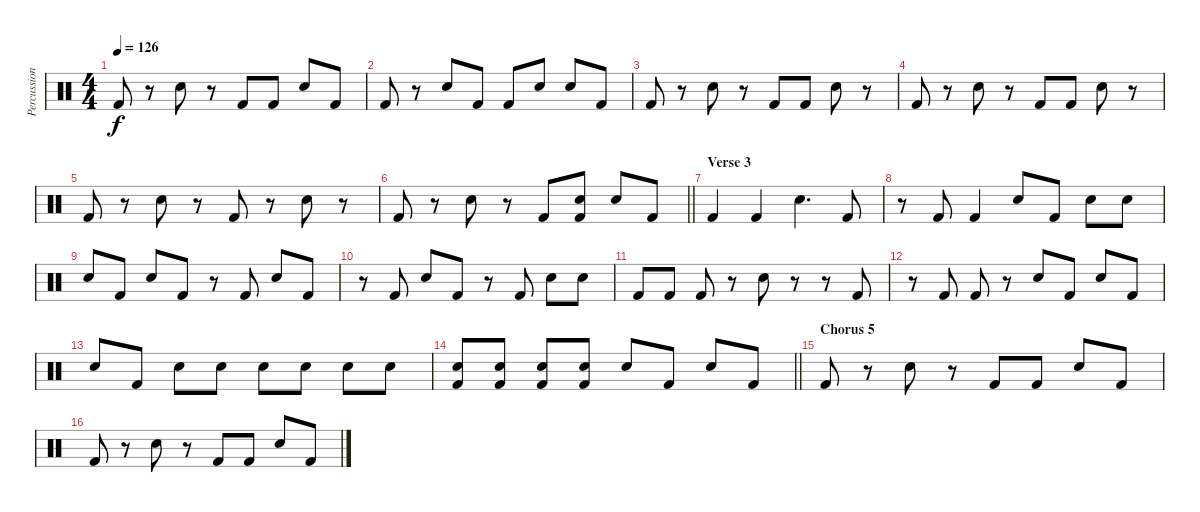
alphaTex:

\track ("Percussion" "Percussion") {instrument percussion}
\staff {score}
\articulation defaults
\ts (4 4)
\tempo 126
\clef neutral
\ks c "Kick (hit) 2".8{dy f}
r.8 "Snare (hit) 2".8 r.8 "Kick (hit) 2".8 "Kick (hit) 2".8 "Snare (hit) 2".8 "Kick (hit) 2".8 |
"Kick (hit) 2".8 r.8 "Snare (hit) 2".8 "Kick (hit) 2".8 "Kick (hit) 2".8 "Snare (hit) 2".8 "Snare (hit) 2".8 "Kick (hit) 2".8 |
"Kick (hit) 2".8 r.8 "Snare (hit) 2".8 r.8 "Kick (hit) 2".8 "Kick (hit) 2".8 "Snare (hit) 2".8 r.8 |
"Kick (hit) 2".8 r.8 "Snare (hit) 2".8 r.8 "Kick (hit) 2".8 "Kick (hit) 2".8 "Snare (hit) 2".8 r.8 |
"Kick (hit) 2".8 r.8 "Snare (hit) 2".8 r.8 "Kick (hit) 2".8 r.8 "Snare (hit) 2".8 r.8 |
\barLineRight lightlight "Kick (hit) 2".8
r.8 "Snare (hit) 2".8 r.8 "Kick (hit) 2".8 ("Snare (hit) 2" "Kick (hit) 2").8 "Snare (hit) 2".8 "Kick (hit) 2".8 |
\section ("" "Verse 3")
"Kick (hit) 2".4 "Kick (hit) 2".4 "Snare (hit) 2".4{d} "Kick (hit) 2".8 |
r.8 "Kick (hit) 2".8 "Kick (hit) 2".4 "Snare (hit) 2".8 "Kick (hit) 2".8 "Snare (hit) 2".8 "Snare (hit) 2".8 |
"Snare (hit) 2".8 "Kick (hit) 2".8 "Snare (hit) 2".8 "Kick (hit) 2".8 r.8 "Kick (hit) 2".8 "Snare (hit) 2".8 "Kick (hit) 2".8 |
r.8 "Kick (hit) 2".8 "Snare (hit) 2".8 "Kick (hit) 2".8 r.8 "Kick (hit) 2".8 "Snare (hit) 2".8 "Snare (hit) 2".8 |
"Kick (hit) 2".8 "Kick (hit) 2".8 "Kick (hit) 2".8 r.8 "Snare (hit) 2".8 r.8 r.8 "Kick (hit) 2".8 |
r.8 "Kick (hit) 2".8 "Kick (hit) 2".8 r.8 "Snare (hit) 2".8 "Kick (hit) 2".8 "Snare (hit) 2".8 "Kick (hit) 2".8 |
"Snare (hit) 2".8 "Kick (hit) 2".8 "Snare (hit) 2".8 "Snare (hit) 2".8 "Snare (hit) 2".8 "Snare (hit) 2".8 "Snare (hit) 2".8 "Snare (hit) 2".8 |
\barLineRight lightlight
("Snare (hit) 2" "Kick (hit) 2").8 ("Snare (hit) 2" "Kick (hit) 2").8 ("Snare (hit) 2" "Kick (hit) 2").8 ("Snare (hit) 2" "Kick (hit) 2").8 "Snare (hit) 2".8 "Kick (hit) 2".8 "Snare (hit) 2".8 "Kick (hit) 2".8 |
\section ("" "Chorus 5")
"Kick (hit) 2".8 r.8 "Snare (hit) 2".8 r.8 "Kick (hit) 2".8 "Kick (hit) 2".8 "Snare (hit) 2".8 "Kick (hit) 2".8 |
"Kick (hit) 2".8 r.8 "Snare (hit) 2".8 r.8 "Kick (hit) 2".8 "Kick (hit) 2".8 "Snare (hit) 2".8 "Kick (hit) 2".8
